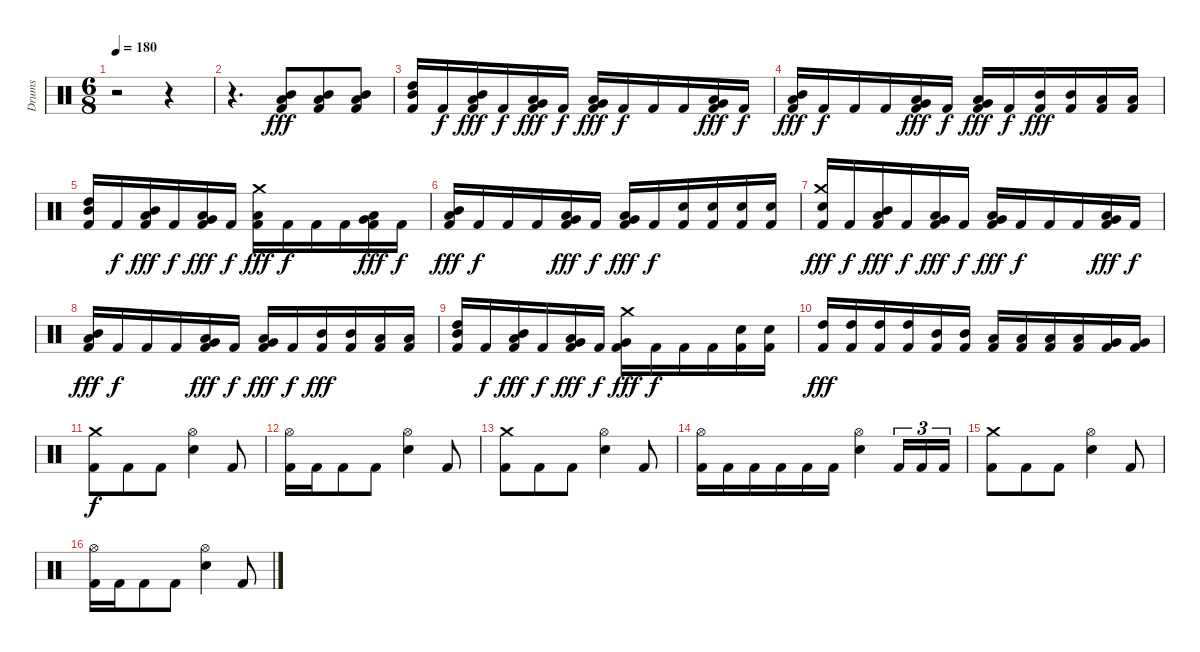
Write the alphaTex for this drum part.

\track ("Drums" "Drums") {instrument percussion}
\staff {score}
\articulation defaults
\ts (6 8)
\tempo 180
\clef neutral
\ks c
r.2{dy fff} r.4 |
r.4{d} ("Kick (hit) 2" "Mid Tom (hit)" "Low Tom (hit)").8 ("Kick (hit) 2" "Mid Tom (hit)" "Low Tom (hit)").8 ("Kick (hit) 2" "Mid Tom (hit)" "Low Tom (hit)").8 |
("Kick (hit) 2" "Mid Tom (hit)" "High Tom (hit)").16 "Kick (hit) 2".16{dy f} ("Kick (hit) 2" "Low Tom (hit)" "Mid Tom (hit)").16{dy fff} "Kick (hit) 2".16{dy f} ("Kick (hit) 2" "Very Low Tom (hit)" "Low Tom (hit)").16{dy fff} "Kick (hit) 2".16{dy f} ("Kick (hit) 2" "Low Floor Tom (hit)" "Very Low Tom (hit)").16{dy fff} "Kick (hit) 2".16{dy f} "Kick (hit) 2".16 "Kick (hit) 2".16 ("Kick (hit) 2" "Low Tom (hit)" "Very Low Tom (hit)").16{dy fff} "Kick (hit) 2".16{dy f} |
("Kick (hit) 2" "Mid Tom (hit)" "Low Tom (hit)").16{dy fff} "Kick (hit) 2".16{dy f} "Kick (hit) 2".16 "Kick (hit) 2".16 ("Kick (hit) 2" "Low Tom (hit)" "Very Low Tom (hit)").16{dy fff} "Kick (hit) 2".16{dy f} ("Kick (hit) 2" "Very Low Tom (hit)" "Low Floor Tom (hit)").16{dy fff} "Kick (hit) 2".16{dy f} ("Kick (hit) 2" "Mid Tom (hit)").16{dy fff} ("Kick (hit) 2" "Mid Tom (hit)").16 ("Kick (hit) 2" "Low Tom (hit)").16 ("Kick (hit) 2" "Low Tom (hit)").16 |
("Kick (hit) 2" "Mid Tom (hit)" "High Tom (hit)").16 "Kick (hit) 2".16{dy f} ("Kick (hit) 2" "Low Tom (hit)" "Mid Tom (hit)").16{dy fff} "Kick (hit) 2".16{dy f} ("Kick (hit) 2" "Very Low Tom (hit)" "Low Tom (hit)").16{dy fff} "Kick (hit) 2".16{dy f} ("Kick (hit) 2" "Low Floor Tom (hit)" "Crash medium (hit)").16{dy fff} "Kick (hit) 2".16{dy f} "Kick (hit) 2".16 "Kick (hit) 2".16 ("Kick (hit) 2" "Low Tom (hit)" "Very Low Tom (hit)").16{dy fff} "Kick (hit) 2".16{dy f} |
("Kick (hit) 2" "Mid Tom (hit)" "Low Tom (hit)").16{dy fff} "Kick (hit) 2".16{dy f} "Kick (hit) 2".16 "Kick (hit) 2".16 ("Kick (hit) 2" "Low Tom (hit)" "Very Low Tom (hit)").16{dy fff} "Kick (hit) 2".16{dy f} ("Kick (hit) 2" "Very Low Tom (hit)" "Low Floor Tom (hit)").16{dy fff} "Kick (hit) 2".16{dy f} ("Kick (hit) 2" "Electric Snare (hit)").16 ("Kick (hit) 2" "Electric Snare (hit)").16 ("Kick (hit) 2" "Electric Snare (hit)").16 ("Kick (hit) 2" "Electric Snare (hit)").16 |
("Kick (hit) 2" "Electric Snare (hit)" "Crash medium (hit)").16{dy fff} "Kick (hit) 2".16{dy f} ("Kick (hit) 2" "Low Tom (hit)" "Mid Tom (hit)").16{dy fff} "Kick (hit) 2".16{dy f} ("Kick (hit) 2" "Very Low Tom (hit)" "Low Tom (hit)").16{dy fff} "Kick (hit) 2".16{dy f} ("Kick (hit) 2" "Low Floor Tom (hit)" "Very Low Tom (hit)").16{dy fff} "Kick (hit) 2".16{dy f} "Kick (hit) 2".16 "Kick (hit) 2".16 ("Kick (hit) 2" "Low Tom (hit)" "Very Low Tom (hit)").16{dy fff} "Kick (hit) 2".16{dy f} |
("Kick (hit) 2" "Mid Tom (hit)" "Low Tom (hit)").16{dy fff} "Kick (hit) 2".16{dy f} "Kick (hit) 2".16 "Kick (hit) 2".16 ("Kick (hit) 2" "Low Tom (hit)" "Very Low Tom (hit)").16{dy fff} "Kick (hit) 2".16{dy f} ("Kick (hit) 2" "Very Low Tom (hit)" "Low Floor Tom (hit)").16{dy fff} "Kick (hit) 2".16{dy f} ("Kick (hit) 2" "Mid Tom (hit)").16{dy fff} ("Kick (hit) 2" "Mid Tom (hit)").16 ("Kick (hit) 2" "Low Tom (hit)").16 ("Kick (hit) 2" "Low Tom (hit)").16 |
("Kick (hit) 2" "Mid Tom (hit)" "High Tom (hit)").16 "Kick (hit) 2".16{dy f} ("Kick (hit) 2" "Low Tom (hit)" "Mid Tom (hit)").16{dy fff} "Kick (hit) 2".16{dy f} ("Kick (hit) 2" "Very Low Tom (hit)" "Low Tom (hit)").16{dy fff} "Kick (hit) 2".16{dy f} ("Kick (hit) 2" "Very Low Tom (hit)" "Crash medium (hit)").16{dy fff} "Kick (hit) 2".16{dy f} "Kick (hit) 2".16 "Kick (hit) 2".16 ("Kick (hit) 2" "Electric Snare (hit)").16 ("Kick (hit) 2" "Electric Snare (hit)").16 |
("Kick (hit) 2" "High Tom (hit)").16{dy fff} ("Kick (hit) 2" "High Tom (hit)").16 ("Kick (hit) 2" "High Tom (hit)").16 ("Kick (hit) 2" "High Tom (hit)").16 ("Kick (hit) 2" "Mid Tom (hit)").16 ("Kick (hit) 2" "Mid Tom (hit)").16 ("Kick (hit) 2" "Low Tom (hit)").16 ("Kick (hit) 2" "Low Tom (hit)").16 ("Kick (hit) 2" "Low Tom (hit)").16 ("Kick (hit) 2" "Low Tom (hit)").16 ("Kick (hit) 2" "Very Low Tom (hit)").16 ("Kick (hit) 2" "Very Low Tom (hit)").16 |
("Kick (hit) 2" "Crash medium (hit)").8{dy f} "Kick (hit) 2".8 "Kick (hit) 2".8 ("Electric Snare (hit)" "Hi-Hat (open)").4 "Kick (hit) 2".8 |
("Kick (hit) 2" "Hi-Hat (open)").16 "Kick (hit) 2".16 "Kick (hit) 2".8 "Kick (hit) 2".8 ("Electric Snare (hit)" "Hi-Hat (open)").4 "Kick (hit) 2".8 |
("Kick (hit) 2" "Crash medium (hit)").8 "Kick (hit) 2".8 "Kick (hit) 2".8 ("Electric Snare (hit)" "Hi-Hat (open)").4 "Kick (hit) 2".8 |
("Kick (hit) 2" "Hi-Hat (open)").16 "Kick (hit) 2".16 "Kick (hit) 2".16 "Kick (hit) 2".16 "Kick (hit) 2".16 "Kick (hit) 2".16 ("Electric Snare (hit)" "Hi-Hat (open)").4 "Kick (hit) 2".16{tu (3 2)} "Kick (hit) 2".16{tu (3 2)} "Kick (hit) 2".16{tu (3 2)} |
("Kick (hit) 2" "Crash medium (hit)").8 "Kick (hit) 2".8 "Kick (hit) 2".8 ("Electric Snare (hit)" "Hi-Hat (open)").4 "Kick (hit) 2".8 |
("Kick (hit) 2" "Hi-Hat (open)").16 "Kick (hit) 2".16 "Kick (hit) 2".8 "Kick (hit) 2".8 ("Electric Snare (hit)" "Hi-Hat (open)").4 "Kick (hit) 2".8
